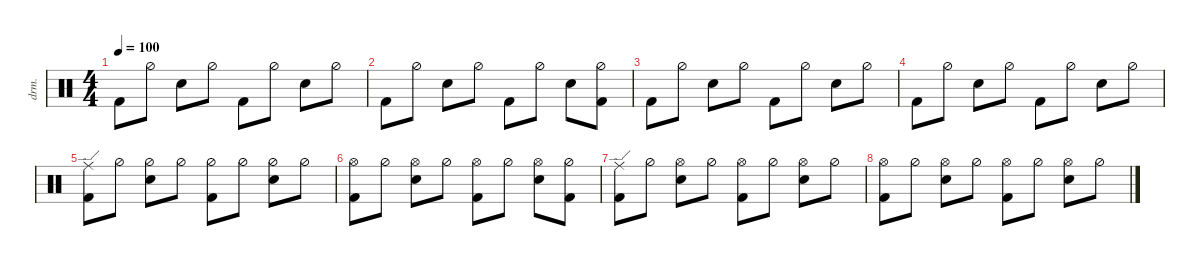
\defaultSystemsLayout 4
\hideDynamics
\bracketExtendMode nobrackets
\otherSystemsTrackNameOrientation horizontal
\track ("Drumkit" "drm.") {instrument percussion}
\staff {score}
\articulation defaults
\ts (4 4)
\tempo 100
\clef neutral
\ks c "Kick (hit) 2".8{dy mf beam Down} "Hi-Hat (half)".8{beam Down} "Snare (hit) 2".8{beam Down} "Hi-Hat (half)".8{beam Down} "Kick (hit) 2".8{beam Down} "Hi-Hat (half)".8{beam Down} "Snare (hit) 2".8{beam Down} "Hi-Hat (half)".8{beam Down}
|
"Kick (hit) 2".8{beam Down} "Hi-Hat (half)".8{beam Down} "Snare (hit) 2".8{beam Down} "Hi-Hat (half)".8{beam Down} "Kick (hit) 2".8{beam Down} "Hi-Hat (half)".8{beam Down} "Snare (hit) 2".8{beam Down} ("Hi-Hat (half)" "Kick (hit) 2").8{beam Down} |
"Kick (hit) 2".8{beam Down} "Hi-Hat (half)".8{beam Down} "Snare (hit) 2".8{beam Down} "Hi-Hat (half)".8{beam Down} "Kick (hit) 2".8{beam Down} "Hi-Hat (half)".8{beam Down} "Snare (hit) 2".8{beam Down} "Hi-Hat (half)".8{beam Down} |
"Kick (hit) 2".8{beam Down} "Hi-Hat (half)".8{beam Down} "Snare (hit) 2".8{beam Down} "Hi-Hat (half)".8{beam Down} "Kick (hit) 2".8{beam Down} "Hi-Hat (half)".8{beam Down} "Snare (hit) 2".8{beam Down} "Hi-Hat (half)".8{beam Down} |
("Kick (hit) 2" "Ride (edge)").8{beam Down} "Hi-Hat (half)".8{beam Down} ("Snare (hit) 2" "Hi-Hat (half)").8{beam Down} "Hi-Hat (half)".8{beam Down} ("Kick (hit) 2" "Hi-Hat (half)").8{beam Down} "Hi-Hat (half)".8{beam Down} ("Snare (hit) 2" "Hi-Hat (half)").8{beam Down} "Hi-Hat (half)".8{beam Down} |
("Kick (hit) 2" "Hi-Hat (open)").8{beam Down} "Hi-Hat (half)".8{beam Down} ("Snare (hit) 2" "Hi-Hat (open)").8{beam Down} "Hi-Hat (half)".8{beam Down} ("Kick (hit) 2" "Hi-Hat (open)").8{beam Down} "Hi-Hat (half)".8{beam Down} ("Snare (hit) 2" "Hi-Hat (open)").8{beam Down} ("Hi-Hat (half)" "Kick (hit) 2").8{beam Down} |
("Kick (hit) 2" "Ride (edge)").8{beam Down} "Hi-Hat (half)".8{beam Down} ("Snare (hit) 2" "Hi-Hat (open)").8{beam Down} "Hi-Hat (half)".8{beam Down} ("Kick (hit) 2" "Hi-Hat (open)").8{beam Down} "Hi-Hat (half)".8{beam Down} ("Snare (hit) 2" "Hi-Hat (open)").8{beam Down} "Hi-Hat (half)".8{beam Down} |
("Kick (hit) 2" "Hi-Hat (open)").8{beam Down} "Hi-Hat (half)".8{beam Down} ("Snare (hit) 2" "Hi-Hat (open)").8{beam Down} "Hi-Hat (half)".8{beam Down} ("Kick (hit) 2" "Hi-Hat (open)").8{beam Down} "Hi-Hat (half)".8{beam Down} ("Snare (hit) 2" "Hi-Hat (open)").8{beam Down} "Hi-Hat (half)".8{beam Down}
